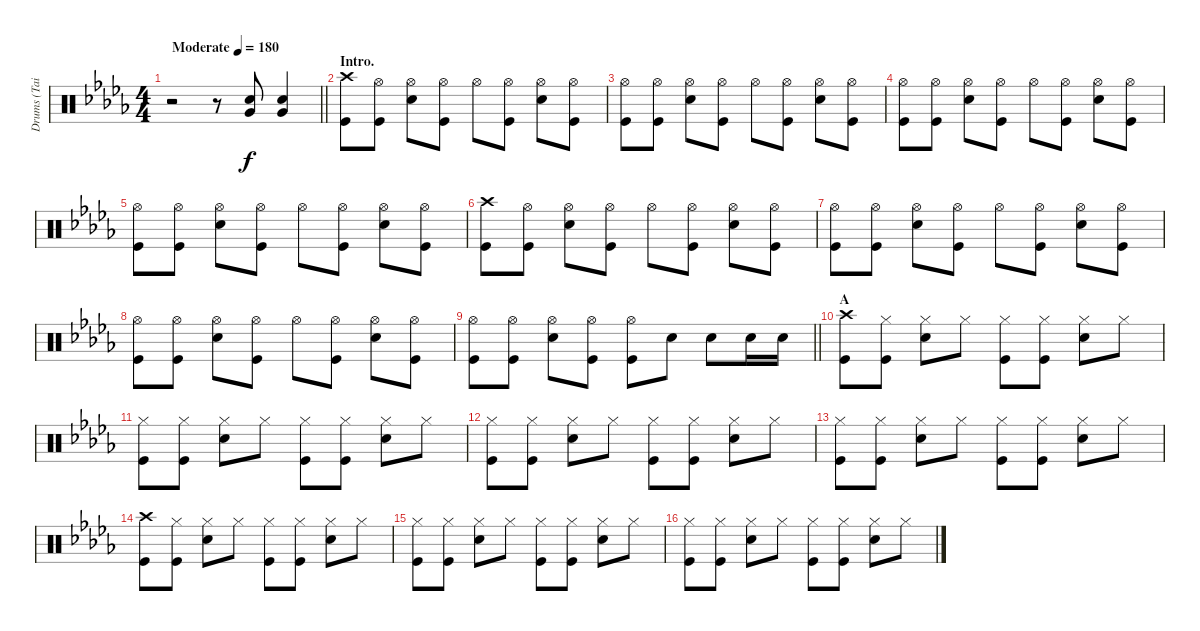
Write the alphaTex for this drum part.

\track ("Drums (Tainaka Ritsu)" "Drums (Tai") {instrument percussion}
\staff {score}
\articulation defaults
\ts (4 4)
\tempo (180 "Moderate")
\clef neutral
\barLineRight lightlight
\ks db
r.2{dy f} r.8 ("Snare (hit) 2" "Very Low Tom (hit)").8 ("Snare (hit) 2" "Very Low Tom (hit)").4 |
\section ("" "Intro.")
("Crash high (hit)" "Kick (hit)").8 ("Hi-Hat (open)" "Kick (hit)").8 ("Hi-Hat (open)" "Snare (hit) 2").8 ("Hi-Hat (open)" "Kick (hit)").8 "Hi-Hat (open)".8 ("Hi-Hat (open)" "Kick (hit)").8 ("Hi-Hat (open)" "Snare (hit) 2").8 ("Hi-Hat (open)" "Kick (hit)").8 |
("Hi-Hat (open)" "Kick (hit)").8 ("Hi-Hat (open)" "Kick (hit)").8 ("Hi-Hat (open)" "Snare (hit) 2").8 ("Hi-Hat (open)" "Kick (hit)").8 "Hi-Hat (open)".8 ("Hi-Hat (open)" "Kick (hit)").8 ("Hi-Hat (open)" "Snare (hit) 2").8 ("Hi-Hat (open)" "Kick (hit)").8 |
("Hi-Hat (open)" "Kick (hit)").8 ("Hi-Hat (open)" "Kick (hit)").8 ("Hi-Hat (open)" "Snare (hit) 2").8 ("Hi-Hat (open)" "Kick (hit)").8 "Hi-Hat (open)".8 ("Hi-Hat (open)" "Kick (hit)").8 ("Hi-Hat (open)" "Snare (hit) 2").8 ("Hi-Hat (open)" "Kick (hit)").8 |
("Hi-Hat (open)" "Kick (hit)").8 ("Hi-Hat (open)" "Kick (hit)").8 ("Hi-Hat (open)" "Snare (hit) 2").8 ("Hi-Hat (open)" "Kick (hit)").8 "Hi-Hat (open)".8 ("Hi-Hat (open)" "Kick (hit)").8 ("Hi-Hat (open)" "Snare (hit) 2").8 ("Hi-Hat (open)" "Kick (hit)").8 |
("Crash high (hit)" "Kick (hit)").8 ("Hi-Hat (open)" "Kick (hit)").8 ("Hi-Hat (open)" "Snare (hit) 2").8 ("Hi-Hat (open)" "Kick (hit)").8 "Hi-Hat (open)".8 ("Hi-Hat (open)" "Kick (hit)").8 ("Hi-Hat (open)" "Snare (hit) 2").8 ("Hi-Hat (open)" "Kick (hit)").8 |
("Hi-Hat (open)" "Kick (hit)").8 ("Hi-Hat (open)" "Kick (hit)").8 ("Hi-Hat (open)" "Snare (hit) 2").8 ("Hi-Hat (open)" "Kick (hit)").8 "Hi-Hat (open)".8 ("Hi-Hat (open)" "Kick (hit)").8 ("Hi-Hat (open)" "Snare (hit) 2").8 ("Hi-Hat (open)" "Kick (hit)").8 |
("Hi-Hat (open)" "Kick (hit)").8 ("Hi-Hat (open)" "Kick (hit)").8 ("Hi-Hat (open)" "Snare (hit) 2").8 ("Hi-Hat (open)" "Kick (hit)").8 "Hi-Hat (open)".8 ("Hi-Hat (open)" "Kick (hit)").8 ("Hi-Hat (open)" "Snare (hit) 2").8 ("Hi-Hat (open)" "Kick (hit)").8 |
\barLineRight lightlight
("Hi-Hat (open)" "Kick (hit)").8 ("Hi-Hat (open)" "Kick (hit)").8 ("Hi-Hat (open)" "Snare (hit) 2").8 ("Hi-Hat (open)" "Kick (hit)").8 ("Hi-Hat (open)" "Kick (hit)").8 "Snare (hit) 2".8 "Snare (hit) 2".8 "Snare (hit) 2".16 "Snare (hit) 2".16 |
\section ("" "A")
("Crash high (hit)" "Kick (hit)").8 ("Hi-Hat (closed)" "Kick (hit)").8 ("Hi-Hat (closed)" "Snare (hit) 2").8 "Hi-Hat (closed)".8 ("Hi-Hat (closed)" "Kick (hit)").8 ("Hi-Hat (closed)" "Kick (hit)").8 ("Hi-Hat (closed)" "Snare (hit) 2").8 "Hi-Hat (closed)".8 |
("Hi-Hat (closed)" "Kick (hit)").8 ("Hi-Hat (closed)" "Kick (hit)").8 ("Hi-Hat (closed)" "Snare (hit) 2").8 "Hi-Hat (closed)".8 ("Hi-Hat (closed)" "Kick (hit)").8 ("Hi-Hat (closed)" "Kick (hit)").8 ("Hi-Hat (closed)" "Snare (hit) 2").8 "Hi-Hat (closed)".8 |
("Hi-Hat (closed)" "Kick (hit)").8 ("Hi-Hat (closed)" "Kick (hit)").8 ("Hi-Hat (closed)" "Snare (hit) 2").8 "Hi-Hat (closed)".8 ("Hi-Hat (closed)" "Kick (hit)").8 ("Hi-Hat (closed)" "Kick (hit)").8 ("Hi-Hat (closed)" "Snare (hit) 2").8 "Hi-Hat (closed)".8 |
("Hi-Hat (closed)" "Kick (hit)").8 ("Hi-Hat (closed)" "Kick (hit)").8 ("Hi-Hat (closed)" "Snare (hit) 2").8 "Hi-Hat (closed)".8 ("Hi-Hat (closed)" "Kick (hit)").8 ("Hi-Hat (closed)" "Kick (hit)").8 ("Hi-Hat (closed)" "Snare (hit) 2").8 "Hi-Hat (closed)".8 |
("Crash high (hit)" "Kick (hit)").8 ("Hi-Hat (closed)" "Kick (hit)").8 ("Hi-Hat (closed)" "Snare (hit) 2").8 "Hi-Hat (closed)".8 ("Hi-Hat (closed)" "Kick (hit)").8 ("Hi-Hat (closed)" "Kick (hit)").8 ("Hi-Hat (closed)" "Snare (hit) 2").8 "Hi-Hat (closed)".8 |
("Hi-Hat (closed)" "Kick (hit)").8 ("Hi-Hat (closed)" "Kick (hit)").8 ("Hi-Hat (closed)" "Snare (hit) 2").8 "Hi-Hat (closed)".8 ("Hi-Hat (closed)" "Kick (hit)").8 ("Hi-Hat (closed)" "Kick (hit)").8 ("Hi-Hat (closed)" "Snare (hit) 2").8 "Hi-Hat (closed)".8 |
("Hi-Hat (closed)" "Kick (hit)").8 ("Hi-Hat (closed)" "Kick (hit)").8 ("Hi-Hat (closed)" "Snare (hit) 2").8 "Hi-Hat (closed)".8 ("Hi-Hat (closed)" "Kick (hit)").8 ("Hi-Hat (closed)" "Kick (hit)").8 ("Hi-Hat (closed)" "Snare (hit) 2").8 "Hi-Hat (closed)".8
